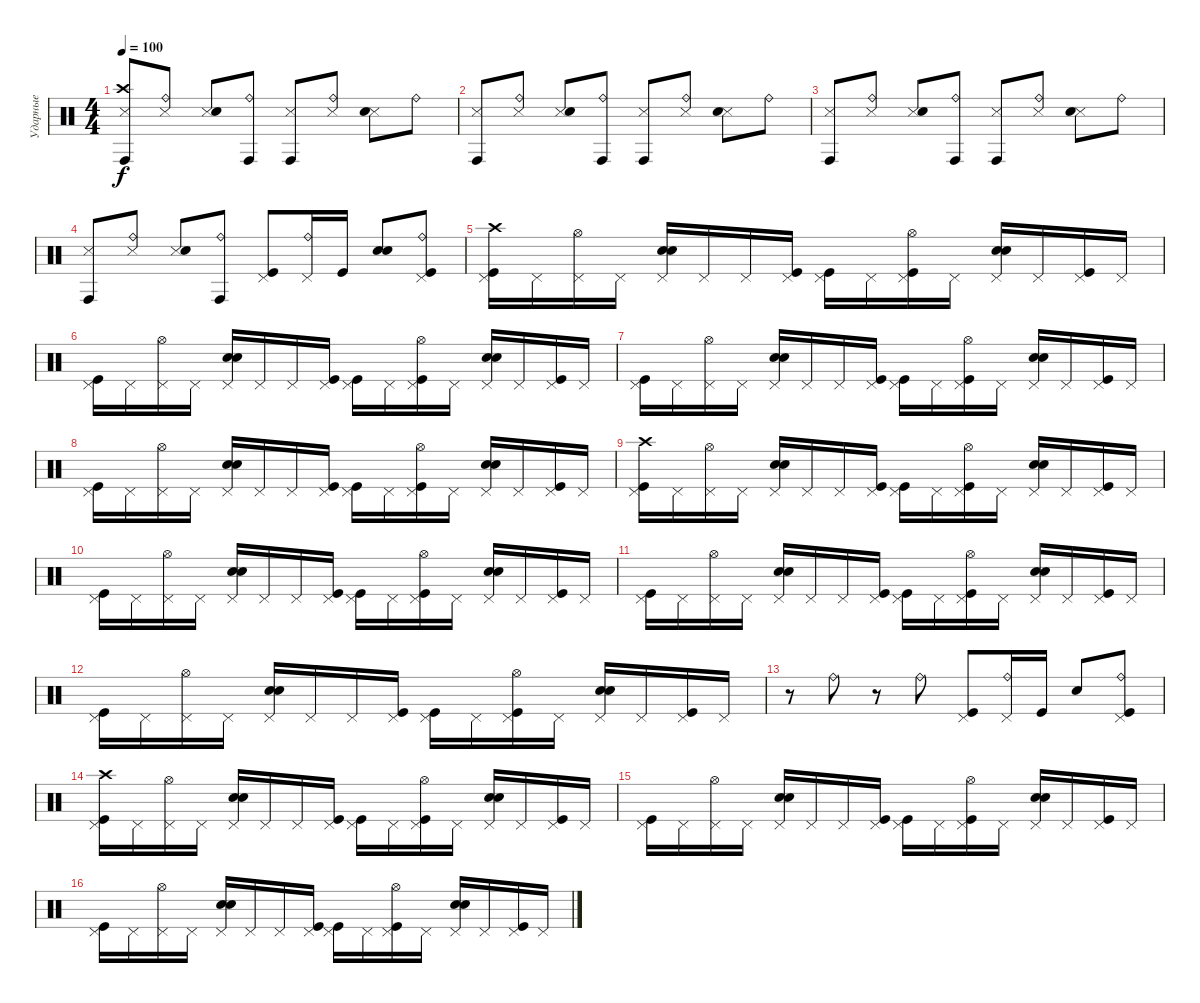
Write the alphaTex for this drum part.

\track ("Ударные" "Ударные") {instrument percussion}
\staff {score}
\articulation defaults
\ts (4 4)
\tempo 100
\clef neutral
\ks c
("Conga high (hit)" "Metronome (hit)" "Crash high (hit)").8{dy f} ("Metronome (hit)" "Ride (bell)").8 ("Metronome (hit)" "Hand Clap (hit)").8 ("Conga high (hit)" "Ride (bell)").8 ("Conga high (hit)" "Metronome (hit)").8 ("Metronome (hit)" "Ride (bell)").8 ("Metronome (hit)" "Hand Clap (hit)").8 "Ride (bell)".8 |
("Conga high (hit)" "Metronome (hit)").8 ("Metronome (hit)" "Ride (bell)").8 ("Metronome (hit)" "Hand Clap (hit)").8 ("Conga high (hit)" "Ride (bell)").8 ("Conga high (hit)" "Metronome (hit)").8 ("Metronome (hit)" "Ride (bell)").8 ("Metronome (hit)" "Hand Clap (hit)").8 "Ride (bell)".8 |
("Conga high (hit)" "Metronome (hit)").8 ("Metronome (hit)" "Ride (bell)").8 ("Metronome (hit)" "Hand Clap (hit)").8 ("Conga high (hit)" "Ride (bell)").8 ("Conga high (hit)" "Metronome (hit)").8 ("Metronome (hit)" "Ride (bell)").8 ("Metronome (hit)" "Hand Clap (hit)").8 "Ride (bell)".8 |
("Conga high (hit)" "Metronome (hit)").8 ("Metronome (hit)" "Ride (bell)").8 ("Metronome (hit)" "Hand Clap (hit)").8 ("Conga high (hit)" "Ride (bell)").8 ("Kick (hit)" "Pedal Hi-Hat (hit)").8 ("Pedal Hi-Hat (hit)" "Ride (bell)").16 "Kick (hit)".16 ("Electric Snare (hit)" "Hand Clap (hit)").8 ("Kick (hit)" "Pedal Hi-Hat (hit)" "Ride (bell)").8 |
("Kick (hit)" "Pedal Hi-Hat (hit)" "Crash high (hit)").16 "Pedal Hi-Hat (hit)".16 ("Pedal Hi-Hat (hit)" "Hi-Hat (open)").16 "Pedal Hi-Hat (hit)".16 ("Pedal Hi-Hat (hit)" "Electric Snare (hit)" "Hand Clap (hit)").16 "Pedal Hi-Hat (hit)".16 "Pedal Hi-Hat (hit)".16 ("Kick (hit)" "Pedal Hi-Hat (hit)").16 ("Kick (hit)" "Pedal Hi-Hat (hit)").16 "Pedal Hi-Hat (hit)".16 ("Kick (hit)" "Pedal Hi-Hat (hit)" "Hi-Hat (open)").16 "Pedal Hi-Hat (hit)".16 ("Pedal Hi-Hat (hit)" "Electric Snare (hit)" "Hand Clap (hit)").16 "Pedal Hi-Hat (hit)".16 ("Kick (hit)" "Pedal Hi-Hat (hit)").16 "Pedal Hi-Hat (hit)".16 |
("Kick (hit)" "Pedal Hi-Hat (hit)").16 "Pedal Hi-Hat (hit)".16 ("Pedal Hi-Hat (hit)" "Hi-Hat (open)").16 "Pedal Hi-Hat (hit)".16 ("Pedal Hi-Hat (hit)" "Electric Snare (hit)" "Hand Clap (hit)").16 "Pedal Hi-Hat (hit)".16 "Pedal Hi-Hat (hit)".16 ("Kick (hit)" "Pedal Hi-Hat (hit)").16 ("Kick (hit)" "Pedal Hi-Hat (hit)").16 "Pedal Hi-Hat (hit)".16 ("Kick (hit)" "Pedal Hi-Hat (hit)" "Hi-Hat (open)").16 "Pedal Hi-Hat (hit)".16 ("Pedal Hi-Hat (hit)" "Electric Snare (hit)" "Hand Clap (hit)").16 "Pedal Hi-Hat (hit)".16 ("Kick (hit)" "Pedal Hi-Hat (hit)").16 "Pedal Hi-Hat (hit)".16 |
("Kick (hit)" "Pedal Hi-Hat (hit)").16 "Pedal Hi-Hat (hit)".16 ("Pedal Hi-Hat (hit)" "Hi-Hat (open)").16 "Pedal Hi-Hat (hit)".16 ("Pedal Hi-Hat (hit)" "Electric Snare (hit)" "Hand Clap (hit)").16 "Pedal Hi-Hat (hit)".16 "Pedal Hi-Hat (hit)".16 ("Kick (hit)" "Pedal Hi-Hat (hit)").16 ("Kick (hit)" "Pedal Hi-Hat (hit)").16 "Pedal Hi-Hat (hit)".16 ("Kick (hit)" "Pedal Hi-Hat (hit)" "Hi-Hat (open)").16 "Pedal Hi-Hat (hit)".16 ("Pedal Hi-Hat (hit)" "Electric Snare (hit)" "Hand Clap (hit)").16 "Pedal Hi-Hat (hit)".16 ("Kick (hit)" "Pedal Hi-Hat (hit)").16 "Pedal Hi-Hat (hit)".16 |
("Kick (hit)" "Pedal Hi-Hat (hit)").16 "Pedal Hi-Hat (hit)".16 ("Pedal Hi-Hat (hit)" "Hi-Hat (open)").16 "Pedal Hi-Hat (hit)".16 ("Pedal Hi-Hat (hit)" "Electric Snare (hit)" "Hand Clap (hit)").16 "Pedal Hi-Hat (hit)".16 "Pedal Hi-Hat (hit)".16 ("Kick (hit)" "Pedal Hi-Hat (hit)").16 ("Kick (hit)" "Pedal Hi-Hat (hit)").16 "Pedal Hi-Hat (hit)".16 ("Kick (hit)" "Pedal Hi-Hat (hit)" "Hi-Hat (open)").16 "Pedal Hi-Hat (hit)".16 ("Pedal Hi-Hat (hit)" "Electric Snare (hit)" "Hand Clap (hit)").16 "Pedal Hi-Hat (hit)".16 ("Kick (hit)" "Pedal Hi-Hat (hit)").16 "Pedal Hi-Hat (hit)".16 |
("Kick (hit)" "Pedal Hi-Hat (hit)" "Crash high (hit)").16 "Pedal Hi-Hat (hit)".16 ("Pedal Hi-Hat (hit)" "Hi-Hat (open)").16 "Pedal Hi-Hat (hit)".16 ("Pedal Hi-Hat (hit)" "Electric Snare (hit)" "Hand Clap (hit)").16 "Pedal Hi-Hat (hit)".16 "Pedal Hi-Hat (hit)".16 ("Kick (hit)" "Pedal Hi-Hat (hit)").16 ("Kick (hit)" "Pedal Hi-Hat (hit)").16 "Pedal Hi-Hat (hit)".16 ("Kick (hit)" "Pedal Hi-Hat (hit)" "Hi-Hat (open)").16 "Pedal Hi-Hat (hit)".16 ("Pedal Hi-Hat (hit)" "Electric Snare (hit)" "Hand Clap (hit)").16 "Pedal Hi-Hat (hit)".16 ("Kick (hit)" "Pedal Hi-Hat (hit)").16 "Pedal Hi-Hat (hit)".16 |
("Kick (hit)" "Pedal Hi-Hat (hit)").16 "Pedal Hi-Hat (hit)".16 ("Pedal Hi-Hat (hit)" "Hi-Hat (open)").16 "Pedal Hi-Hat (hit)".16 ("Pedal Hi-Hat (hit)" "Electric Snare (hit)" "Hand Clap (hit)").16 "Pedal Hi-Hat (hit)".16 "Pedal Hi-Hat (hit)".16 ("Kick (hit)" "Pedal Hi-Hat (hit)").16 ("Kick (hit)" "Pedal Hi-Hat (hit)").16 "Pedal Hi-Hat (hit)".16 ("Kick (hit)" "Pedal Hi-Hat (hit)" "Hi-Hat (open)").16 "Pedal Hi-Hat (hit)".16 ("Pedal Hi-Hat (hit)" "Electric Snare (hit)" "Hand Clap (hit)").16 "Pedal Hi-Hat (hit)".16 ("Kick (hit)" "Pedal Hi-Hat (hit)").16 "Pedal Hi-Hat (hit)".16 |
("Kick (hit)" "Pedal Hi-Hat (hit)").16 "Pedal Hi-Hat (hit)".16 ("Pedal Hi-Hat (hit)" "Hi-Hat (open)").16 "Pedal Hi-Hat (hit)".16 ("Pedal Hi-Hat (hit)" "Electric Snare (hit)" "Hand Clap (hit)").16 "Pedal Hi-Hat (hit)".16 "Pedal Hi-Hat (hit)".16 ("Kick (hit)" "Pedal Hi-Hat (hit)").16 ("Kick (hit)" "Pedal Hi-Hat (hit)").16 "Pedal Hi-Hat (hit)".16 ("Kick (hit)" "Pedal Hi-Hat (hit)" "Hi-Hat (open)").16 "Pedal Hi-Hat (hit)".16 ("Pedal Hi-Hat (hit)" "Electric Snare (hit)" "Hand Clap (hit)").16 "Pedal Hi-Hat (hit)".16 ("Kick (hit)" "Pedal Hi-Hat (hit)").16 "Pedal Hi-Hat (hit)".16 |
("Kick (hit)" "Pedal Hi-Hat (hit)").16 "Pedal Hi-Hat (hit)".16 ("Pedal Hi-Hat (hit)" "Hi-Hat (open)").16 "Pedal Hi-Hat (hit)".16 ("Pedal Hi-Hat (hit)" "Electric Snare (hit)" "Hand Clap (hit)").16 "Pedal Hi-Hat (hit)".16 "Pedal Hi-Hat (hit)".16 ("Kick (hit)" "Pedal Hi-Hat (hit)").16 ("Kick (hit)" "Pedal Hi-Hat (hit)").16 "Pedal Hi-Hat (hit)".16 ("Kick (hit)" "Pedal Hi-Hat (hit)" "Hi-Hat (open)").16 "Pedal Hi-Hat (hit)".16 ("Pedal Hi-Hat (hit)" "Electric Snare (hit)" "Hand Clap (hit)").16 "Pedal Hi-Hat (hit)".16 ("Kick (hit)" "Pedal Hi-Hat (hit)").16 "Pedal Hi-Hat (hit)".16 |
r.8 "Ride (bell)".8 r.8 "Ride (bell)".8 ("Kick (hit)" "Pedal Hi-Hat (hit)").8 ("Ride (bell)" "Pedal Hi-Hat (hit)").16 "Kick (hit)".16 "Electric Snare (hit)".8 ("Kick (hit)" "Pedal Hi-Hat (hit)" "Ride (bell)").8 |
("Kick (hit)" "Pedal Hi-Hat (hit)" "Crash high (hit)").16 "Pedal Hi-Hat (hit)".16 ("Pedal Hi-Hat (hit)" "Hi-Hat (open)").16 "Pedal Hi-Hat (hit)".16 ("Pedal Hi-Hat (hit)" "Electric Snare (hit)" "Hand Clap (hit)").16 "Pedal Hi-Hat (hit)".16 "Pedal Hi-Hat (hit)".16 ("Kick (hit)" "Pedal Hi-Hat (hit)").16 ("Kick (hit)" "Pedal Hi-Hat (hit)").16 "Pedal Hi-Hat (hit)".16 ("Kick (hit)" "Pedal Hi-Hat (hit)" "Hi-Hat (open)").16 "Pedal Hi-Hat (hit)".16 ("Pedal Hi-Hat (hit)" "Electric Snare (hit)" "Hand Clap (hit)").16 "Pedal Hi-Hat (hit)".16 ("Kick (hit)" "Pedal Hi-Hat (hit)").16 "Pedal Hi-Hat (hit)".16 |
("Kick (hit)" "Pedal Hi-Hat (hit)").16 "Pedal Hi-Hat (hit)".16 ("Pedal Hi-Hat (hit)" "Hi-Hat (open)").16 "Pedal Hi-Hat (hit)".16 ("Pedal Hi-Hat (hit)" "Electric Snare (hit)" "Hand Clap (hit)").16 "Pedal Hi-Hat (hit)".16 "Pedal Hi-Hat (hit)".16 ("Kick (hit)" "Pedal Hi-Hat (hit)").16 ("Kick (hit)" "Pedal Hi-Hat (hit)").16 "Pedal Hi-Hat (hit)".16 ("Kick (hit)" "Pedal Hi-Hat (hit)" "Hi-Hat (open)").16 "Pedal Hi-Hat (hit)".16 ("Pedal Hi-Hat (hit)" "Electric Snare (hit)" "Hand Clap (hit)").16 "Pedal Hi-Hat (hit)".16 ("Kick (hit)" "Pedal Hi-Hat (hit)").16 "Pedal Hi-Hat (hit)".16 |
("Kick (hit)" "Pedal Hi-Hat (hit)").16 "Pedal Hi-Hat (hit)".16 ("Pedal Hi-Hat (hit)" "Hi-Hat (open)").16 "Pedal Hi-Hat (hit)".16 ("Pedal Hi-Hat (hit)" "Electric Snare (hit)" "Hand Clap (hit)").16 "Pedal Hi-Hat (hit)".16 "Pedal Hi-Hat (hit)".16 ("Kick (hit)" "Pedal Hi-Hat (hit)").16 ("Kick (hit)" "Pedal Hi-Hat (hit)").16 "Pedal Hi-Hat (hit)".16 ("Kick (hit)" "Pedal Hi-Hat (hit)" "Hi-Hat (open)").16 "Pedal Hi-Hat (hit)".16 ("Pedal Hi-Hat (hit)" "Electric Snare (hit)" "Hand Clap (hit)").16 "Pedal Hi-Hat (hit)".16 ("Kick (hit)" "Pedal Hi-Hat (hit)").16 "Pedal Hi-Hat (hit)".16
